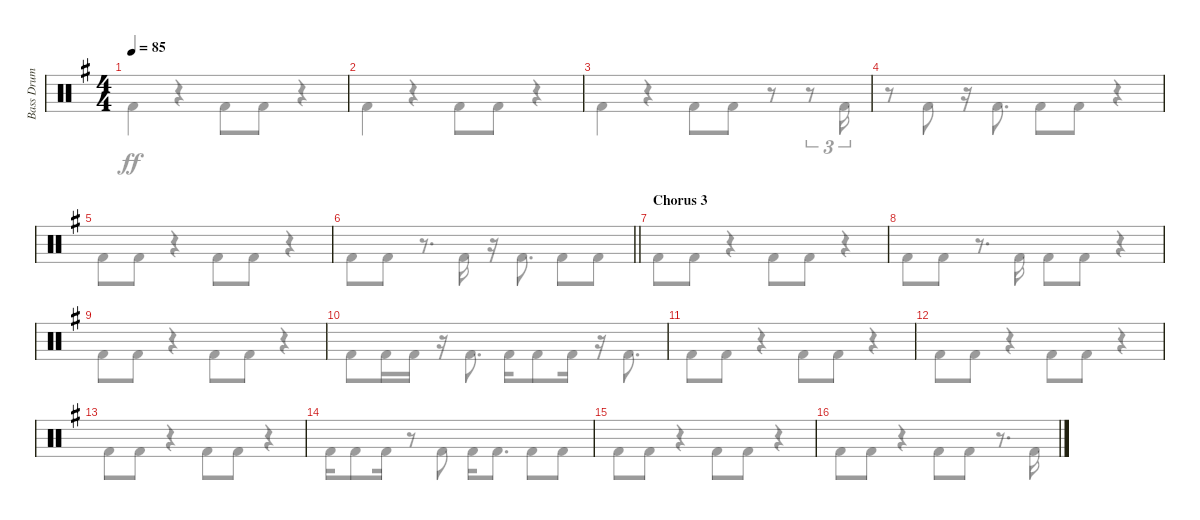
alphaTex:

\track ("Bass Drum" "Bass Drum") {instrument percussion}
\staff {score}
\articulation defaults
\voice
\ts (4 4)
\tempo 85
\clef neutral
\ks g
|
|
|
|
|
\barLineRight lightlight
|
\section ("" "Chorus 3")
|
|
|
|
|
|
|
|
|
\voice
\clef neutral
\ks g "Kick (hit) 2".4{dy ff}
r.4 "Kick (hit) 2".8 "Kick (hit) 2".8 r.4 |
"Kick (hit) 2".4 r.4 "Kick (hit) 2".8 "Kick (hit) 2".8 r.4 |
"Kick (hit) 2".4 r.4 "Kick (hit) 2".8 "Kick (hit) 2".8 r.8 r.8{tu (3 2)} "Kick (hit) 2".16{tu (3 2)} |
r.8 "Kick (hit) 2".8 r.16 "Kick (hit) 2".8{d} "Kick (hit) 2".8 "Kick (hit) 2".8 r.4 |
"Kick (hit) 2".8 "Kick (hit) 2".8 r.4 "Kick (hit) 2".8 "Kick (hit) 2".8 r.4 |
\barLineRight lightlight "Kick (hit) 2".8 "Kick (hit) 2".8
r.8{d} "Kick (hit) 2".16 r.16 "Kick (hit) 2".8{d} "Kick (hit) 2".8 "Kick (hit) 2".8 |
"Kick (hit) 2".8 "Kick (hit) 2".8 r.4 "Kick (hit) 2".8 "Kick (hit) 2".8 r.4 |
"Kick (hit) 2".8 "Kick (hit) 2".8 r.8{d} "Kick (hit) 2".16 "Kick (hit) 2".8 "Kick (hit) 2".8 r.4 |
"Kick (hit) 2".8 "Kick (hit) 2".8 r.4 "Kick (hit) 2".8 "Kick (hit) 2".8 r.4 |
"Kick (hit) 2".8 "Kick (hit) 2".16 "Kick (hit) 2".16 r.16 "Kick (hit) 2".8{d} "Kick (hit) 2".16 "Kick (hit) 2".8 "Kick (hit) 2".16 r.16 "Kick (hit) 2".8{d} |
"Kick (hit) 2".8 "Kick (hit) 2".8 r.4 "Kick (hit) 2".8 "Kick (hit) 2".8 r.4 |
"Kick (hit) 2".8 "Kick (hit) 2".8 r.4 "Kick (hit) 2".8 "Kick (hit) 2".8 r.4 |
"Kick (hit) 2".8 "Kick (hit) 2".8 r.4 "Kick (hit) 2".8 "Kick (hit) 2".8 r.4 |
"Kick (hit) 2".16 "Kick (hit) 2".8 "Kick (hit) 2".16 r.8 "Kick (hit) 2".8 "Kick (hit) 2".16 "Kick (hit) 2".8{d} "Kick (hit) 2".8 "Kick (hit) 2".8 |
"Kick (hit) 2".8 "Kick (hit) 2".8 r.4 "Kick (hit) 2".8 "Kick (hit) 2".8 r.4 |
"Kick (hit) 2".8 "Kick (hit) 2".8 r.4 "Kick (hit) 2".8 "Kick (hit) 2".8 r.8{d} "Kick (hit) 2".16
